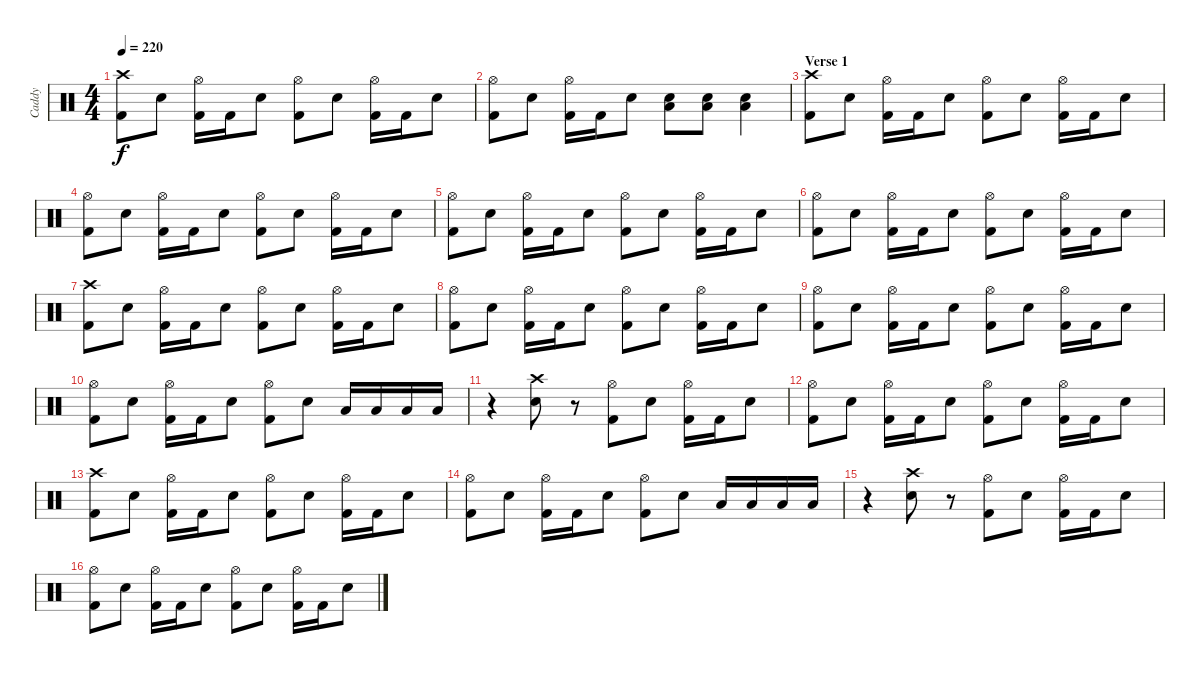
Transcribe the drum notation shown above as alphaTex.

\track ("Caddy" "Caddy") {instrument percussion}
\staff {score}
\articulation defaults
\ts (4 4)
\tempo 220
\clef neutral
\ks c
("Crash high (hit)" "Kick (hit) 2").8{dy f} "Electric Snare (hit)".8 ("Hi-Hat (open)" "Kick (hit) 2").16 "Kick (hit) 2".16 "Electric Snare (hit)".8 ("Hi-Hat (open)" "Kick (hit) 2").8 "Electric Snare (hit)".8 ("Hi-Hat (open)" "Kick (hit) 2").16 "Kick (hit) 2".16 "Electric Snare (hit)".8 |
("Hi-Hat (open)" "Kick (hit) 2").8 "Electric Snare (hit)".8 ("Hi-Hat (open)" "Kick (hit) 2").16 "Kick (hit) 2".16 "Electric Snare (hit)".8 ("Electric Snare (hit)" "Low Floor Tom (hit)").8 ("Electric Snare (hit)" "Low Floor Tom (hit)").8 ("Electric Snare (hit)" "Low Floor Tom (hit)").4 |
\section ("" "Verse 1")
("Crash high (hit)" "Kick (hit) 2").8 "Electric Snare (hit)".8 ("Hi-Hat (open)" "Kick (hit) 2").16 "Kick (hit) 2".16 "Electric Snare (hit)".8 ("Hi-Hat (open)" "Kick (hit) 2").8 "Electric Snare (hit)".8 ("Hi-Hat (open)" "Kick (hit) 2").16 "Kick (hit) 2".16 "Electric Snare (hit)".8 |
("Hi-Hat (open)" "Kick (hit) 2").8 "Electric Snare (hit)".8 ("Hi-Hat (open)" "Kick (hit) 2").16 "Kick (hit) 2".16 "Electric Snare (hit)".8 ("Hi-Hat (open)" "Kick (hit) 2").8 "Electric Snare (hit)".8 ("Hi-Hat (open)" "Kick (hit) 2").16 "Kick (hit) 2".16 "Electric Snare (hit)".8 |
("Hi-Hat (open)" "Kick (hit) 2").8 "Electric Snare (hit)".8 ("Hi-Hat (open)" "Kick (hit) 2").16 "Kick (hit) 2".16 "Electric Snare (hit)".8 ("Hi-Hat (open)" "Kick (hit) 2").8 "Electric Snare (hit)".8 ("Hi-Hat (open)" "Kick (hit) 2").16 "Kick (hit) 2".16 "Electric Snare (hit)".8 |
("Hi-Hat (open)" "Kick (hit) 2").8 "Electric Snare (hit)".8 ("Hi-Hat (open)" "Kick (hit) 2").16 "Kick (hit) 2".16 "Electric Snare (hit)".8 ("Hi-Hat (open)" "Kick (hit) 2").8 "Electric Snare (hit)".8 ("Hi-Hat (open)" "Kick (hit) 2").16 "Kick (hit) 2".16 "Electric Snare (hit)".8 |
("Crash high (hit)" "Kick (hit) 2").8 "Electric Snare (hit)".8 ("Hi-Hat (open)" "Kick (hit) 2").16 "Kick (hit) 2".16 "Electric Snare (hit)".8 ("Hi-Hat (open)" "Kick (hit) 2").8 "Electric Snare (hit)".8 ("Hi-Hat (open)" "Kick (hit) 2").16 "Kick (hit) 2".16 "Electric Snare (hit)".8 |
("Hi-Hat (open)" "Kick (hit) 2").8 "Electric Snare (hit)".8 ("Hi-Hat (open)" "Kick (hit) 2").16 "Kick (hit) 2".16 "Electric Snare (hit)".8 ("Hi-Hat (open)" "Kick (hit) 2").8 "Electric Snare (hit)".8 ("Hi-Hat (open)" "Kick (hit) 2").16 "Kick (hit) 2".16 "Electric Snare (hit)".8 |
("Hi-Hat (open)" "Kick (hit) 2").8 "Electric Snare (hit)".8 ("Hi-Hat (open)" "Kick (hit) 2").16 "Kick (hit) 2".16 "Electric Snare (hit)".8 ("Hi-Hat (open)" "Kick (hit) 2").8 "Electric Snare (hit)".8 ("Hi-Hat (open)" "Kick (hit) 2").16 "Kick (hit) 2".16 "Electric Snare (hit)".8 |
("Hi-Hat (open)" "Kick (hit) 2").8 "Electric Snare (hit)".8 ("Hi-Hat (open)" "Kick (hit) 2").16 "Kick (hit) 2".16 "Electric Snare (hit)".8 ("Hi-Hat (open)" "Kick (hit) 2").8 "Electric Snare (hit)".8 "Low Tom (hit)".16 "Low Tom (hit)".16 "Low Floor Tom (hit)".16 "Low Floor Tom (hit)".16 |
r.4 ("Crash high (hit)" "Electric Snare (hit)").8 r.8 ("Hi-Hat (open)" "Kick (hit) 2").8 "Electric Snare (hit)".8 ("Hi-Hat (open)" "Kick (hit) 2").16 "Kick (hit) 2".16 "Electric Snare (hit)".8 |
("Hi-Hat (open)" "Kick (hit) 2").8 "Electric Snare (hit)".8 ("Hi-Hat (open)" "Kick (hit) 2").16 "Kick (hit) 2".16 "Electric Snare (hit)".8 ("Hi-Hat (open)" "Kick (hit) 2").8 "Electric Snare (hit)".8 ("Hi-Hat (open)" "Kick (hit) 2").16 "Kick (hit) 2".16 "Electric Snare (hit)".8 |
("Crash high (hit)" "Kick (hit) 2").8 "Electric Snare (hit)".8 ("Hi-Hat (open)" "Kick (hit) 2").16 "Kick (hit) 2".16 "Electric Snare (hit)".8 ("Hi-Hat (open)" "Kick (hit) 2").8 "Electric Snare (hit)".8 ("Hi-Hat (open)" "Kick (hit) 2").16 "Kick (hit) 2".16 "Electric Snare (hit)".8 |
("Hi-Hat (open)" "Kick (hit) 2").8 "Electric Snare (hit)".8 ("Hi-Hat (open)" "Kick (hit) 2").16 "Kick (hit) 2".16 "Electric Snare (hit)".8 ("Hi-Hat (open)" "Kick (hit) 2").8 "Electric Snare (hit)".8 "Low Tom (hit)".16 "Low Tom (hit)".16 "Low Floor Tom (hit)".16 "Low Floor Tom (hit)".16 |
r.4 ("Crash high (hit)" "Electric Snare (hit)").8 r.8 ("Hi-Hat (open)" "Kick (hit) 2").8 "Electric Snare (hit)".8 ("Hi-Hat (open)" "Kick (hit) 2").16 "Kick (hit) 2".16 "Electric Snare (hit)".8 |
("Hi-Hat (open)" "Kick (hit) 2").8 "Electric Snare (hit)".8 ("Hi-Hat (open)" "Kick (hit) 2").16 "Kick (hit) 2".16 "Electric Snare (hit)".8 ("Hi-Hat (open)" "Kick (hit) 2").8 "Electric Snare (hit)".8 ("Hi-Hat (open)" "Kick (hit) 2").16 "Kick (hit) 2".16 "Electric Snare (hit)".8
